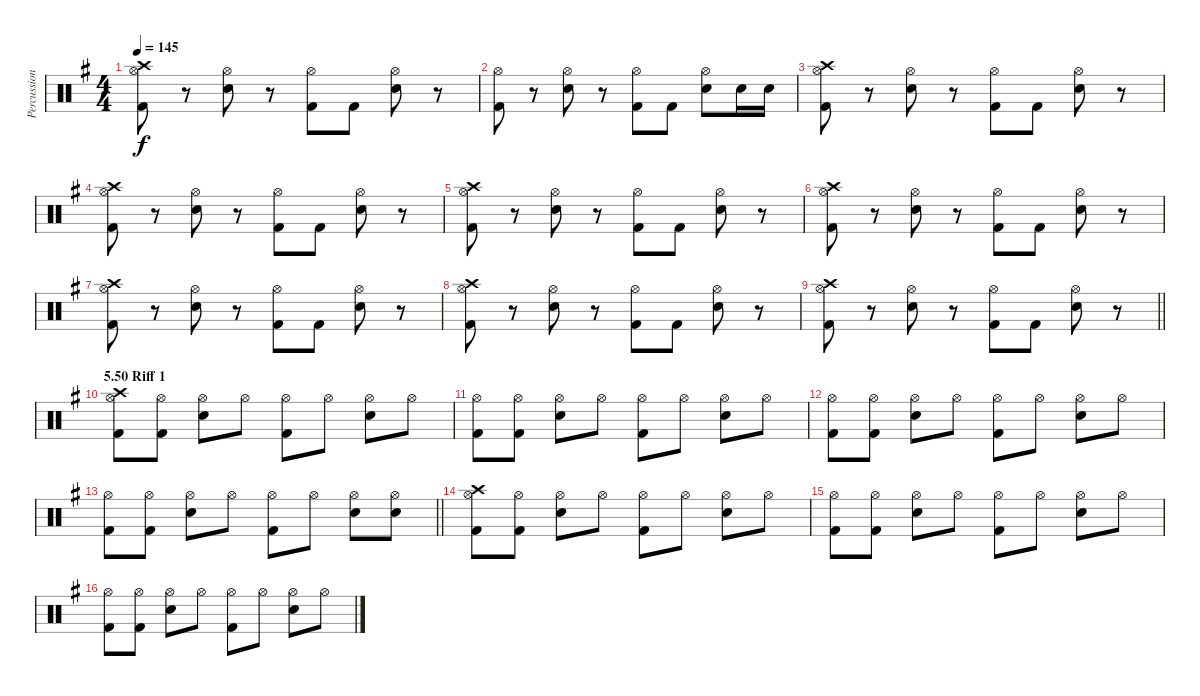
\track ("Percussion" "Percussion") {instrument percussion}
\staff {score}
\articulation defaults
\ts (4 4)
\tempo 145
\clef neutral
\ks eminor
("Crash high (hit)" "Hi-Hat (open)" "Kick (hit) 2").8{dy f} r.8 ("Hi-Hat (open)" "Electric Snare (hit)").8 r.8 ("Hi-Hat (open)" "Kick (hit) 2").8 "Kick (hit) 2".8 ("Hi-Hat (open)" "Electric Snare (hit)").8 r.8 |
("Hi-Hat (open)" "Kick (hit) 2").8 r.8 ("Hi-Hat (open)" "Electric Snare (hit)").8 r.8 ("Hi-Hat (open)" "Kick (hit) 2").8 "Kick (hit) 2".8 ("Hi-Hat (open)" "Electric Snare (hit)").8 "Electric Snare (hit)".16 "Electric Snare (hit)".16 |
("Crash high (hit)" "Hi-Hat (open)" "Kick (hit) 2").8 r.8 ("Hi-Hat (open)" "Electric Snare (hit)").8 r.8 ("Hi-Hat (open)" "Kick (hit) 2").8 "Kick (hit) 2".8 ("Hi-Hat (open)" "Electric Snare (hit)").8 r.8 |
("Crash high (hit)" "Hi-Hat (open)" "Kick (hit) 2").8 r.8 ("Hi-Hat (open)" "Electric Snare (hit)").8 r.8 ("Hi-Hat (open)" "Kick (hit) 2").8 "Kick (hit) 2".8 ("Hi-Hat (open)" "Electric Snare (hit)").8 r.8 |
("Crash high (hit)" "Hi-Hat (open)" "Kick (hit) 2").8 r.8 ("Hi-Hat (open)" "Electric Snare (hit)").8 r.8 ("Hi-Hat (open)" "Kick (hit) 2").8 "Kick (hit) 2".8 ("Hi-Hat (open)" "Electric Snare (hit)").8 r.8 |
("Crash high (hit)" "Hi-Hat (open)" "Kick (hit) 2").8 r.8 ("Hi-Hat (open)" "Electric Snare (hit)").8 r.8 ("Hi-Hat (open)" "Kick (hit) 2").8 "Kick (hit) 2".8 ("Hi-Hat (open)" "Electric Snare (hit)").8 r.8 |
("Crash high (hit)" "Hi-Hat (open)" "Kick (hit) 2").8 r.8 ("Hi-Hat (open)" "Electric Snare (hit)").8 r.8 ("Hi-Hat (open)" "Kick (hit) 2").8 "Kick (hit) 2".8 ("Hi-Hat (open)" "Electric Snare (hit)").8 r.8 |
("Crash high (hit)" "Hi-Hat (open)" "Kick (hit) 2").8 r.8 ("Hi-Hat (open)" "Electric Snare (hit)").8 r.8 ("Hi-Hat (open)" "Kick (hit) 2").8 "Kick (hit) 2".8 ("Hi-Hat (open)" "Electric Snare (hit)").8 r.8 |
\barLineRight lightlight
("Crash high (hit)" "Hi-Hat (open)" "Kick (hit) 2").8 r.8 ("Hi-Hat (open)" "Electric Snare (hit)").8 r.8 ("Hi-Hat (open)" "Kick (hit) 2").8 "Kick (hit) 2".8 ("Hi-Hat (open)" "Electric Snare (hit)").8 r.8 |
\section ("" "5.50 Riff 1")
("Crash high (hit)" "Hi-Hat (open)" "Kick (hit) 2").8 ("Hi-Hat (open)" "Kick (hit) 2").8 ("Hi-Hat (open)" "Electric Snare (hit)").8 "Hi-Hat (open)".8 ("Hi-Hat (open)" "Kick (hit) 2").8 "Hi-Hat (open)".8 ("Hi-Hat (open)" "Electric Snare (hit)").8 "Hi-Hat (open)".8 |
("Hi-Hat (open)" "Kick (hit) 2").8 ("Hi-Hat (open)" "Kick (hit) 2").8 ("Hi-Hat (open)" "Electric Snare (hit)").8 "Hi-Hat (open)".8 ("Hi-Hat (open)" "Kick (hit) 2").8 "Hi-Hat (open)".8 ("Hi-Hat (open)" "Electric Snare (hit)").8 "Hi-Hat (open)".8 |
("Hi-Hat (open)" "Kick (hit) 2").8 ("Hi-Hat (open)" "Kick (hit) 2").8 ("Hi-Hat (open)" "Electric Snare (hit)").8 "Hi-Hat (open)".8 ("Hi-Hat (open)" "Kick (hit) 2").8 "Hi-Hat (open)".8 ("Hi-Hat (open)" "Electric Snare (hit)").8 "Hi-Hat (open)".8 |
\barLineRight lightlight
("Hi-Hat (open)" "Kick (hit) 2").8 ("Hi-Hat (open)" "Kick (hit) 2").8 ("Hi-Hat (open)" "Electric Snare (hit)").8 "Hi-Hat (open)".8 ("Hi-Hat (open)" "Kick (hit) 2").8 "Hi-Hat (open)".8 ("Hi-Hat (open)" "Electric Snare (hit)").8 ("Hi-Hat (open)" "Electric Snare (hit)").8 |
("Crash high (hit)" "Hi-Hat (open)" "Kick (hit) 2").8 ("Hi-Hat (open)" "Kick (hit) 2").8 ("Hi-Hat (open)" "Electric Snare (hit)").8 "Hi-Hat (open)".8 ("Hi-Hat (open)" "Kick (hit) 2").8 "Hi-Hat (open)".8 ("Hi-Hat (open)" "Electric Snare (hit)").8 "Hi-Hat (open)".8 |
("Hi-Hat (open)" "Kick (hit) 2").8 ("Hi-Hat (open)" "Kick (hit) 2").8 ("Hi-Hat (open)" "Electric Snare (hit)").8 "Hi-Hat (open)".8 ("Hi-Hat (open)" "Kick (hit) 2").8 "Hi-Hat (open)".8 ("Hi-Hat (open)" "Electric Snare (hit)").8 "Hi-Hat (open)".8 |
("Hi-Hat (open)" "Kick (hit) 2").8 ("Hi-Hat (open)" "Kick (hit) 2").8 ("Hi-Hat (open)" "Electric Snare (hit)").8 "Hi-Hat (open)".8 ("Hi-Hat (open)" "Kick (hit) 2").8 "Hi-Hat (open)".8 ("Hi-Hat (open)" "Electric Snare (hit)").8 "Hi-Hat (open)".8
